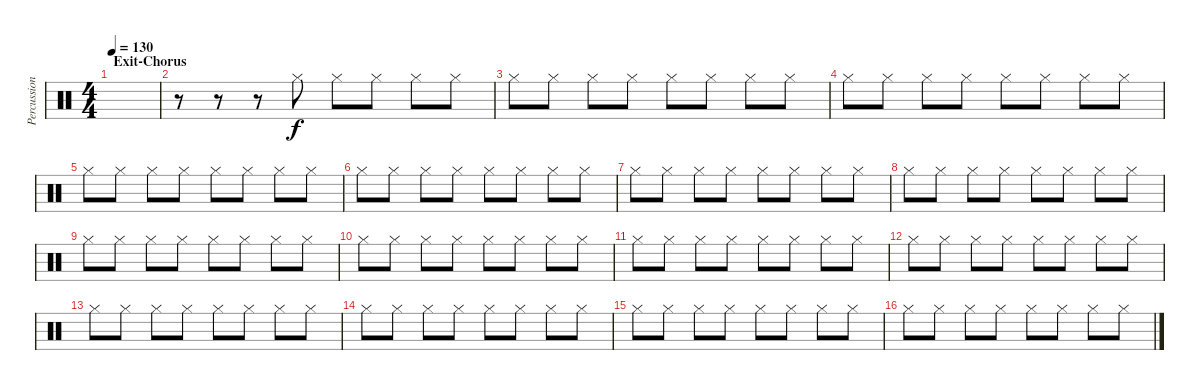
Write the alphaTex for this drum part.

\track ("Percussion" "Percussion") {instrument percussion}
\staff {score}
\articulation defaults
\ts (4 4)
\section ("" "Exit-Chorus")
\tempo 130
\clef neutral
\ks c
|
r.8 r.8 r.8 "Hi-Hat (closed)".8 "Hi-Hat (closed)".8 "Hi-Hat (closed)".8 "Hi-Hat (closed)".8 "Hi-Hat (closed)".8 |
"Hi-Hat (closed)".8 "Hi-Hat (closed)".8 "Hi-Hat (closed)".8 "Hi-Hat (closed)".8 "Hi-Hat (closed)".8 "Hi-Hat (closed)".8 "Hi-Hat (closed)".8 "Hi-Hat (closed)".8 |
"Hi-Hat (closed)".8 "Hi-Hat (closed)".8 "Hi-Hat (closed)".8 "Hi-Hat (closed)".8 "Hi-Hat (closed)".8 "Hi-Hat (closed)".8 "Hi-Hat (closed)".8 "Hi-Hat (closed)".8 |
"Hi-Hat (closed)".8 "Hi-Hat (closed)".8 "Hi-Hat (closed)".8 "Hi-Hat (closed)".8 "Hi-Hat (closed)".8 "Hi-Hat (closed)".8 "Hi-Hat (closed)".8 "Hi-Hat (closed)".8 |
"Hi-Hat (closed)".8 "Hi-Hat (closed)".8 "Hi-Hat (closed)".8 "Hi-Hat (closed)".8 "Hi-Hat (closed)".8 "Hi-Hat (closed)".8 "Hi-Hat (closed)".8 "Hi-Hat (closed)".8 |
"Hi-Hat (closed)".8 "Hi-Hat (closed)".8 "Hi-Hat (closed)".8 "Hi-Hat (closed)".8 "Hi-Hat (closed)".8 "Hi-Hat (closed)".8 "Hi-Hat (closed)".8 "Hi-Hat (closed)".8 |
"Hi-Hat (closed)".8 "Hi-Hat (closed)".8 "Hi-Hat (closed)".8 "Hi-Hat (closed)".8 "Hi-Hat (closed)".8 "Hi-Hat (closed)".8 "Hi-Hat (closed)".8 "Hi-Hat (closed)".8 |
"Hi-Hat (closed)".8 "Hi-Hat (closed)".8 "Hi-Hat (closed)".8 "Hi-Hat (closed)".8 "Hi-Hat (closed)".8 "Hi-Hat (closed)".8 "Hi-Hat (closed)".8 "Hi-Hat (closed)".8 |
"Hi-Hat (closed)".8 "Hi-Hat (closed)".8 "Hi-Hat (closed)".8 "Hi-Hat (closed)".8 "Hi-Hat (closed)".8 "Hi-Hat (closed)".8 "Hi-Hat (closed)".8 "Hi-Hat (closed)".8 |
"Hi-Hat (closed)".8 "Hi-Hat (closed)".8 "Hi-Hat (closed)".8 "Hi-Hat (closed)".8 "Hi-Hat (closed)".8 "Hi-Hat (closed)".8 "Hi-Hat (closed)".8 "Hi-Hat (closed)".8 |
"Hi-Hat (closed)".8 "Hi-Hat (closed)".8 "Hi-Hat (closed)".8 "Hi-Hat (closed)".8 "Hi-Hat (closed)".8 "Hi-Hat (closed)".8 "Hi-Hat (closed)".8 "Hi-Hat (closed)".8 |
"Hi-Hat (closed)".8 "Hi-Hat (closed)".8 "Hi-Hat (closed)".8 "Hi-Hat (closed)".8 "Hi-Hat (closed)".8 "Hi-Hat (closed)".8 "Hi-Hat (closed)".8 "Hi-Hat (closed)".8 |
"Hi-Hat (closed)".8 "Hi-Hat (closed)".8 "Hi-Hat (closed)".8 "Hi-Hat (closed)".8 "Hi-Hat (closed)".8 "Hi-Hat (closed)".8 "Hi-Hat (closed)".8 "Hi-Hat (closed)".8 |
"Hi-Hat (closed)".8 "Hi-Hat (closed)".8 "Hi-Hat (closed)".8 "Hi-Hat (closed)".8 "Hi-Hat (closed)".8 "Hi-Hat (closed)".8 "Hi-Hat (closed)".8 "Hi-Hat (closed)".8 |
"Hi-Hat (closed)".8 "Hi-Hat (closed)".8 "Hi-Hat (closed)".8 "Hi-Hat (closed)".8 "Hi-Hat (closed)".8 "Hi-Hat (closed)".8 "Hi-Hat (closed)".8 "Hi-Hat (closed)".8
